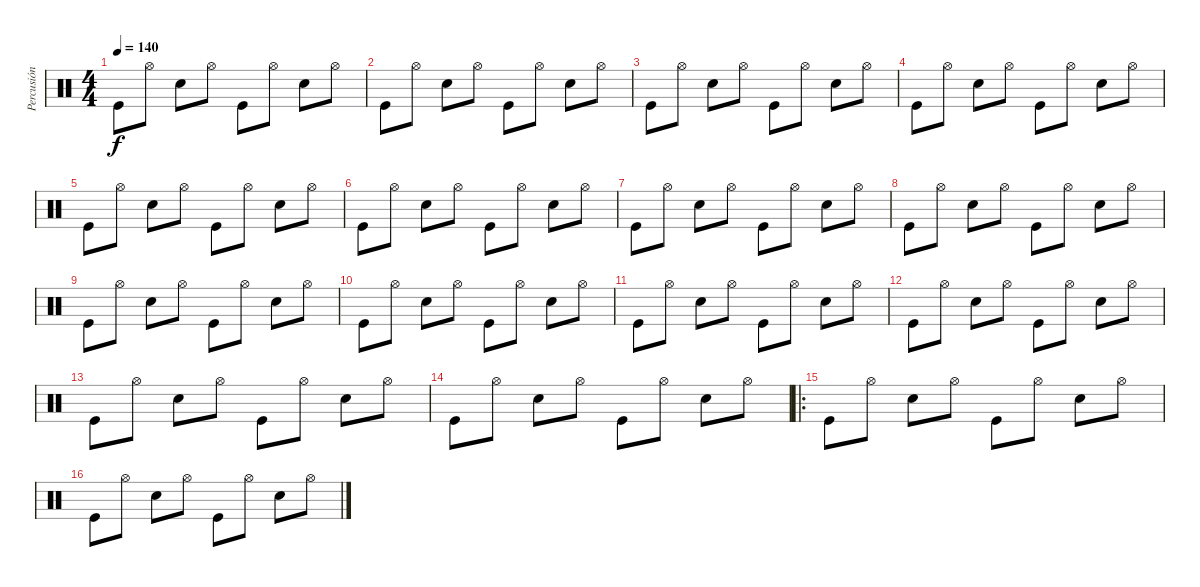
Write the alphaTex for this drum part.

\track ("Percusión" "Percusión") {instrument percussion}
\staff {score}
\articulation defaults
\ts (4 4)
\tempo 140
\clef neutral
\ks c "Kick (hit)".8{dy f} "Hi-Hat (open)".8 "Electric Snare (hit)".8 "Hi-Hat (open)".8 "Kick (hit)".8 "Hi-Hat (open)".8 "Electric Snare (hit)".8 "Hi-Hat (open)".8
|
"Kick (hit)".8 "Hi-Hat (open)".8 "Electric Snare (hit)".8 "Hi-Hat (open)".8 "Kick (hit)".8 "Hi-Hat (open)".8 "Electric Snare (hit)".8 "Hi-Hat (open)".8 |
"Kick (hit)".8 "Hi-Hat (open)".8 "Electric Snare (hit)".8 "Hi-Hat (open)".8 "Kick (hit)".8 "Hi-Hat (open)".8 "Electric Snare (hit)".8 "Hi-Hat (open)".8 |
"Kick (hit)".8 "Hi-Hat (open)".8 "Electric Snare (hit)".8 "Hi-Hat (open)".8 "Kick (hit)".8 "Hi-Hat (open)".8 "Electric Snare (hit)".8 "Hi-Hat (open)".8 |
"Kick (hit)".8 "Hi-Hat (open)".8 "Electric Snare (hit)".8 "Hi-Hat (open)".8 "Kick (hit)".8 "Hi-Hat (open)".8 "Electric Snare (hit)".8 "Hi-Hat (open)".8 |
"Kick (hit)".8 "Hi-Hat (open)".8 "Electric Snare (hit)".8 "Hi-Hat (open)".8 "Kick (hit)".8 "Hi-Hat (open)".8 "Electric Snare (hit)".8 "Hi-Hat (open)".8 |
"Kick (hit)".8 "Hi-Hat (open)".8 "Electric Snare (hit)".8 "Hi-Hat (open)".8 "Kick (hit)".8 "Hi-Hat (open)".8 "Electric Snare (hit)".8 "Hi-Hat (open)".8 |
"Kick (hit)".8 "Hi-Hat (open)".8 "Electric Snare (hit)".8 "Hi-Hat (open)".8 "Kick (hit)".8 "Hi-Hat (open)".8 "Electric Snare (hit)".8 "Hi-Hat (open)".8 |
"Kick (hit)".8 "Hi-Hat (open)".8 "Electric Snare (hit)".8 "Hi-Hat (open)".8 "Kick (hit)".8 "Hi-Hat (open)".8 "Electric Snare (hit)".8 "Hi-Hat (open)".8 |
"Kick (hit)".8 "Hi-Hat (open)".8 "Electric Snare (hit)".8 "Hi-Hat (open)".8 "Kick (hit)".8 "Hi-Hat (open)".8 "Electric Snare (hit)".8 "Hi-Hat (open)".8 |
"Kick (hit)".8 "Hi-Hat (open)".8 "Electric Snare (hit)".8 "Hi-Hat (open)".8 "Kick (hit)".8 "Hi-Hat (open)".8 "Electric Snare (hit)".8 "Hi-Hat (open)".8 |
"Kick (hit)".8 "Hi-Hat (open)".8 "Electric Snare (hit)".8 "Hi-Hat (open)".8 "Kick (hit)".8 "Hi-Hat (open)".8 "Electric Snare (hit)".8 "Hi-Hat (open)".8 |
"Kick (hit)".8 "Hi-Hat (open)".8 "Electric Snare (hit)".8 "Hi-Hat (open)".8 "Kick (hit)".8 "Hi-Hat (open)".8 "Electric Snare (hit)".8 "Hi-Hat (open)".8 |
"Kick (hit)".8 "Hi-Hat (open)".8 "Electric Snare (hit)".8 "Hi-Hat (open)".8 "Kick (hit)".8 "Hi-Hat (open)".8 "Electric Snare (hit)".8 "Hi-Hat (open)".8 |
\ro "Kick (hit)".8 "Hi-Hat (open)".8 "Electric Snare (hit)".8 "Hi-Hat (open)".8 "Kick (hit)".8 "Hi-Hat (open)".8 "Electric Snare (hit)".8 "Hi-Hat (open)".8
|
"Kick (hit)".8 "Hi-Hat (open)".8 "Electric Snare (hit)".8 "Hi-Hat (open)".8 "Kick (hit)".8 "Hi-Hat (open)".8 "Electric Snare (hit)".8 "Hi-Hat (open)".8
